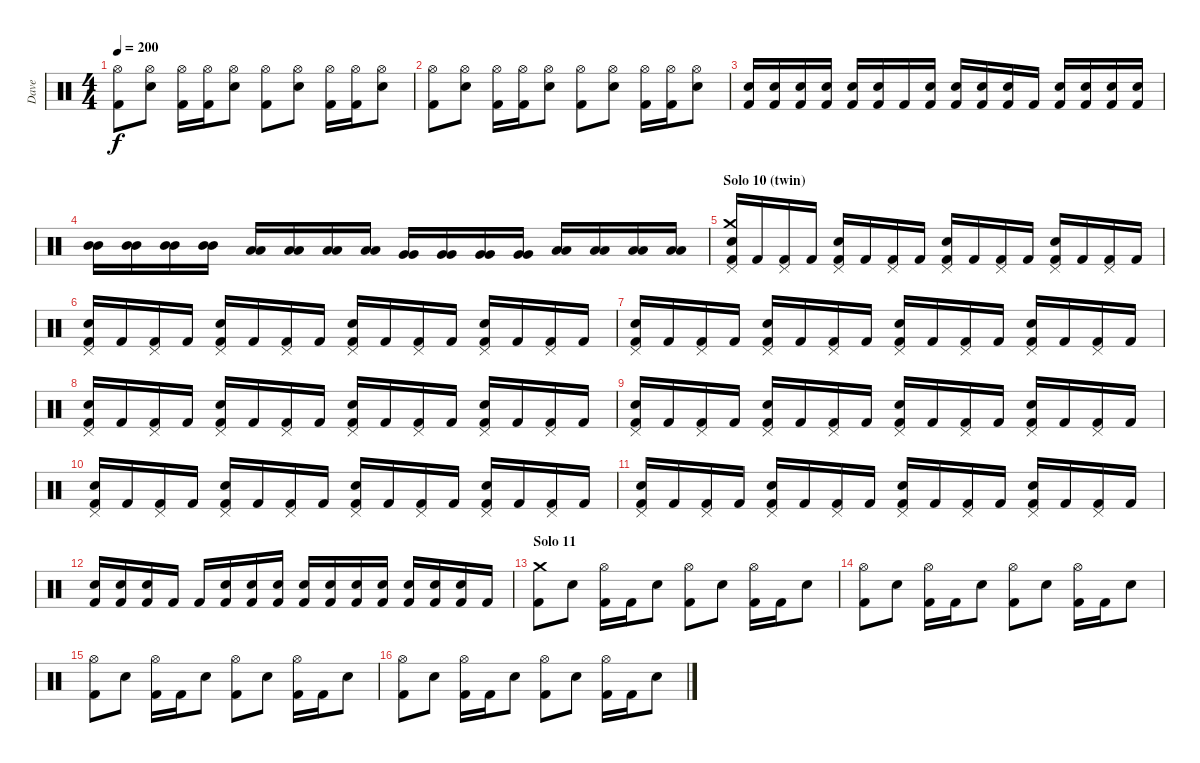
\track ("Dave" "Dave") {instrument percussion}
\staff {score}
\articulation defaults
\ts (4 4)
\tempo 200
\clef neutral
\ks c
("Hi-Hat (open)" "Kick (hit) 2").8{dy f} ("Hi-Hat (open)" "Snare (hit) 2").8 ("Hi-Hat (open)" "Kick (hit) 2").16 ("Hi-Hat (open)" "Kick (hit) 2").16 ("Hi-Hat (open)" "Snare (hit) 2").8 ("Hi-Hat (open)" "Kick (hit) 2").8 ("Hi-Hat (open)" "Snare (hit) 2").8 ("Hi-Hat (open)" "Kick (hit) 2").16 ("Hi-Hat (open)" "Kick (hit) 2").16 ("Hi-Hat (open)" "Snare (hit) 2").8 |
("Hi-Hat (open)" "Kick (hit) 2").8 ("Hi-Hat (open)" "Snare (hit) 2").8 ("Hi-Hat (open)" "Kick (hit) 2").16 ("Hi-Hat (open)" "Kick (hit) 2").16 ("Hi-Hat (open)" "Snare (hit) 2").8 ("Hi-Hat (open)" "Kick (hit) 2").8 ("Hi-Hat (open)" "Snare (hit) 2").8 ("Hi-Hat (open)" "Kick (hit) 2").16 ("Hi-Hat (open)" "Kick (hit) 2").16 ("Hi-Hat (open)" "Snare (hit) 2").8 |
("Snare (hit) 2" "Kick (hit) 2").16 ("Snare (hit) 2" "Kick (hit) 2").16 ("Snare (hit) 2" "Kick (hit) 2").16 ("Snare (hit) 2" "Kick (hit) 2").16 ("Snare (hit) 2" "Kick (hit) 2").16 ("Snare (hit) 2" "Kick (hit) 2").16 "Kick (hit) 2".16 ("Snare (hit) 2" "Kick (hit) 2").16 ("Snare (hit) 2" "Kick (hit) 2").16 ("Snare (hit) 2" "Kick (hit) 2").16 ("Snare (hit) 2" "Kick (hit) 2").16 "Kick (hit) 2".16 ("Snare (hit) 2" "Kick (hit) 2").16 ("Snare (hit) 2" "Kick (hit) 2").16 ("Snare (hit) 2" "Kick (hit) 2").16 ("Snare (hit) 2" "Kick (hit) 2").16 |
("Mid Tom (hit)" "Mid Tom (hit)").16 ("Mid Tom (hit)" "Mid Tom (hit)").16 ("Mid Tom (hit)" "Mid Tom (hit)").16 ("Mid Tom (hit)" "Mid Tom (hit)").16 ("Low Tom (hit)" "Low Tom (hit)").16 ("Low Tom (hit)" "Low Tom (hit)").16 ("Low Tom (hit)" "Low Tom (hit)").16 ("Low Tom (hit)" "Low Tom (hit)").16 ("Very Low Tom (hit)" "Very Low Tom (hit)").16 ("Very Low Tom (hit)" "Very Low Tom (hit)").16 ("Very Low Tom (hit)" "Very Low Tom (hit)").16 ("Very Low Tom (hit)" "Very Low Tom (hit)").16 ("Low Floor Tom (hit)" "Low Floor Tom (hit)").16 ("Low Floor Tom (hit)" "Low Floor Tom (hit)").16 ("Low Floor Tom (hit)" "Low Floor Tom (hit)").16 ("Low Floor Tom (hit)" "Low Floor Tom (hit)").16 |
\section ("" "Solo 10 (twin)")
("Crash medium (hit)" "Pedal Hi-Hat (hit)" "Snare (hit) 2" "Kick (hit) 2").16 "Kick (hit) 2".16 ("Pedal Hi-Hat (hit)" "Kick (hit) 2").16 "Kick (hit) 2".16 ("Pedal Hi-Hat (hit)" "Snare (hit) 2" "Kick (hit) 2").16 "Kick (hit) 2".16 ("Pedal Hi-Hat (hit)" "Kick (hit) 2").16 "Kick (hit) 2".16 ("Pedal Hi-Hat (hit)" "Snare (hit) 2" "Kick (hit) 2").16 "Kick (hit) 2".16 ("Pedal Hi-Hat (hit)" "Kick (hit) 2").16 "Kick (hit) 2".16 ("Pedal Hi-Hat (hit)" "Snare (hit) 2" "Kick (hit) 2").16 "Kick (hit) 2".16 ("Pedal Hi-Hat (hit)" "Kick (hit) 2").16 "Kick (hit) 2".16 |
("Pedal Hi-Hat (hit)" "Snare (hit) 2" "Kick (hit) 2").16 "Kick (hit) 2".16 ("Pedal Hi-Hat (hit)" "Kick (hit) 2").16 "Kick (hit) 2".16 ("Pedal Hi-Hat (hit)" "Snare (hit) 2" "Kick (hit) 2").16 "Kick (hit) 2".16 ("Pedal Hi-Hat (hit)" "Kick (hit) 2").16 "Kick (hit) 2".16 ("Pedal Hi-Hat (hit)" "Snare (hit) 2" "Kick (hit) 2").16 "Kick (hit) 2".16 ("Pedal Hi-Hat (hit)" "Kick (hit) 2").16 "Kick (hit) 2".16 ("Pedal Hi-Hat (hit)" "Snare (hit) 2" "Kick (hit) 2").16 "Kick (hit) 2".16 ("Pedal Hi-Hat (hit)" "Kick (hit) 2").16 "Kick (hit) 2".16 |
("Pedal Hi-Hat (hit)" "Snare (hit) 2" "Kick (hit) 2").16 "Kick (hit) 2".16 ("Pedal Hi-Hat (hit)" "Kick (hit) 2").16 "Kick (hit) 2".16 ("Pedal Hi-Hat (hit)" "Snare (hit) 2" "Kick (hit) 2").16 "Kick (hit) 2".16 ("Pedal Hi-Hat (hit)" "Kick (hit) 2").16 "Kick (hit) 2".16 ("Pedal Hi-Hat (hit)" "Snare (hit) 2" "Kick (hit) 2").16 "Kick (hit) 2".16 ("Pedal Hi-Hat (hit)" "Kick (hit) 2").16 "Kick (hit) 2".16 ("Pedal Hi-Hat (hit)" "Snare (hit) 2" "Kick (hit) 2").16 "Kick (hit) 2".16 ("Pedal Hi-Hat (hit)" "Kick (hit) 2").16 "Kick (hit) 2".16 |
("Pedal Hi-Hat (hit)" "Snare (hit) 2" "Kick (hit) 2").16 "Kick (hit) 2".16 ("Pedal Hi-Hat (hit)" "Kick (hit) 2").16 "Kick (hit) 2".16 ("Pedal Hi-Hat (hit)" "Snare (hit) 2" "Kick (hit) 2").16 "Kick (hit) 2".16 ("Pedal Hi-Hat (hit)" "Kick (hit) 2").16 "Kick (hit) 2".16 ("Pedal Hi-Hat (hit)" "Snare (hit) 2" "Kick (hit) 2").16 "Kick (hit) 2".16 ("Pedal Hi-Hat (hit)" "Kick (hit) 2").16 "Kick (hit) 2".16 ("Pedal Hi-Hat (hit)" "Snare (hit) 2" "Kick (hit) 2").16 "Kick (hit) 2".16 ("Pedal Hi-Hat (hit)" "Kick (hit) 2").16 "Kick (hit) 2".16 |
("Pedal Hi-Hat (hit)" "Snare (hit) 2" "Kick (hit) 2").16 "Kick (hit) 2".16 ("Pedal Hi-Hat (hit)" "Kick (hit) 2").16 "Kick (hit) 2".16 ("Pedal Hi-Hat (hit)" "Snare (hit) 2" "Kick (hit) 2").16 "Kick (hit) 2".16 ("Pedal Hi-Hat (hit)" "Kick (hit) 2").16 "Kick (hit) 2".16 ("Pedal Hi-Hat (hit)" "Snare (hit) 2" "Kick (hit) 2").16 "Kick (hit) 2".16 ("Pedal Hi-Hat (hit)" "Kick (hit) 2").16 "Kick (hit) 2".16 ("Pedal Hi-Hat (hit)" "Snare (hit) 2" "Kick (hit) 2").16 "Kick (hit) 2".16 ("Pedal Hi-Hat (hit)" "Kick (hit) 2").16 "Kick (hit) 2".16 |
("Pedal Hi-Hat (hit)" "Snare (hit) 2" "Kick (hit) 2").16 "Kick (hit) 2".16 ("Pedal Hi-Hat (hit)" "Kick (hit) 2").16 "Kick (hit) 2".16 ("Pedal Hi-Hat (hit)" "Snare (hit) 2" "Kick (hit) 2").16 "Kick (hit) 2".16 ("Pedal Hi-Hat (hit)" "Kick (hit) 2").16 "Kick (hit) 2".16 ("Pedal Hi-Hat (hit)" "Snare (hit) 2" "Kick (hit) 2").16 "Kick (hit) 2".16 ("Pedal Hi-Hat (hit)" "Kick (hit) 2").16 "Kick (hit) 2".16 ("Pedal Hi-Hat (hit)" "Snare (hit) 2" "Kick (hit) 2").16 "Kick (hit) 2".16 ("Pedal Hi-Hat (hit)" "Kick (hit) 2").16 "Kick (hit) 2".16 |
("Pedal Hi-Hat (hit)" "Snare (hit) 2" "Kick (hit) 2").16 "Kick (hit) 2".16 ("Pedal Hi-Hat (hit)" "Kick (hit) 2").16 "Kick (hit) 2".16 ("Pedal Hi-Hat (hit)" "Snare (hit) 2" "Kick (hit) 2").16 "Kick (hit) 2".16 ("Pedal Hi-Hat (hit)" "Kick (hit) 2").16 "Kick (hit) 2".16 ("Pedal Hi-Hat (hit)" "Snare (hit) 2" "Kick (hit) 2").16 "Kick (hit) 2".16 ("Pedal Hi-Hat (hit)" "Kick (hit) 2").16 "Kick (hit) 2".16 ("Pedal Hi-Hat (hit)" "Snare (hit) 2" "Kick (hit) 2").16 "Kick (hit) 2".16 ("Pedal Hi-Hat (hit)" "Kick (hit) 2").16 "Kick (hit) 2".16 |
("Snare (hit) 2" "Kick (hit) 2").16 ("Snare (hit) 2" "Kick (hit) 2").16 ("Snare (hit) 2" "Kick (hit) 2").16 "Kick (hit) 2".16 "Kick (hit) 2".16 ("Snare (hit) 2" "Kick (hit) 2").16 ("Snare (hit) 2" "Kick (hit) 2").16 ("Snare (hit) 2" "Kick (hit) 2").16 ("Snare (hit) 2" "Kick (hit) 2").16 ("Snare (hit) 2" "Kick (hit) 2").16 ("Snare (hit) 2" "Kick (hit) 2").16 ("Snare (hit) 2" "Kick (hit) 2").16 ("Snare (hit) 2" "Kick (hit) 2").16 ("Snare (hit) 2" "Kick (hit) 2").16 ("Snare (hit) 2" "Kick (hit) 2").16 "Kick (hit) 2".16 |
\section ("" "Solo 11")
("Crash medium (hit)" "Kick (hit) 2").8 "Snare (hit) 2".8 ("Hi-Hat (open)" "Kick (hit) 2").16 "Kick (hit) 2".16 "Snare (hit) 2".8 ("Hi-Hat (open)" "Kick (hit) 2").8 "Snare (hit) 2".8 ("Hi-Hat (open)" "Kick (hit) 2").16 "Kick (hit) 2".16 "Snare (hit) 2".8 |
("Hi-Hat (open)" "Kick (hit) 2").8 "Snare (hit) 2".8 ("Hi-Hat (open)" "Kick (hit) 2").16 "Kick (hit) 2".16 "Snare (hit) 2".8 ("Hi-Hat (open)" "Kick (hit) 2").8 "Snare (hit) 2".8 ("Hi-Hat (open)" "Kick (hit) 2").16 "Kick (hit) 2".16 "Snare (hit) 2".8 |
("Hi-Hat (open)" "Kick (hit) 2").8 "Snare (hit) 2".8 ("Hi-Hat (open)" "Kick (hit) 2").16 "Kick (hit) 2".16 "Snare (hit) 2".8 ("Hi-Hat (open)" "Kick (hit) 2").8 "Snare (hit) 2".8 ("Hi-Hat (open)" "Kick (hit) 2").16 "Kick (hit) 2".16 "Snare (hit) 2".8 |
("Hi-Hat (open)" "Kick (hit) 2").8 "Snare (hit) 2".8 ("Hi-Hat (open)" "Kick (hit) 2").16 "Kick (hit) 2".16 "Snare (hit) 2".8 ("Hi-Hat (open)" "Kick (hit) 2").8 "Snare (hit) 2".8 ("Hi-Hat (open)" "Kick (hit) 2").16 "Kick (hit) 2".16 "Snare (hit) 2".8
